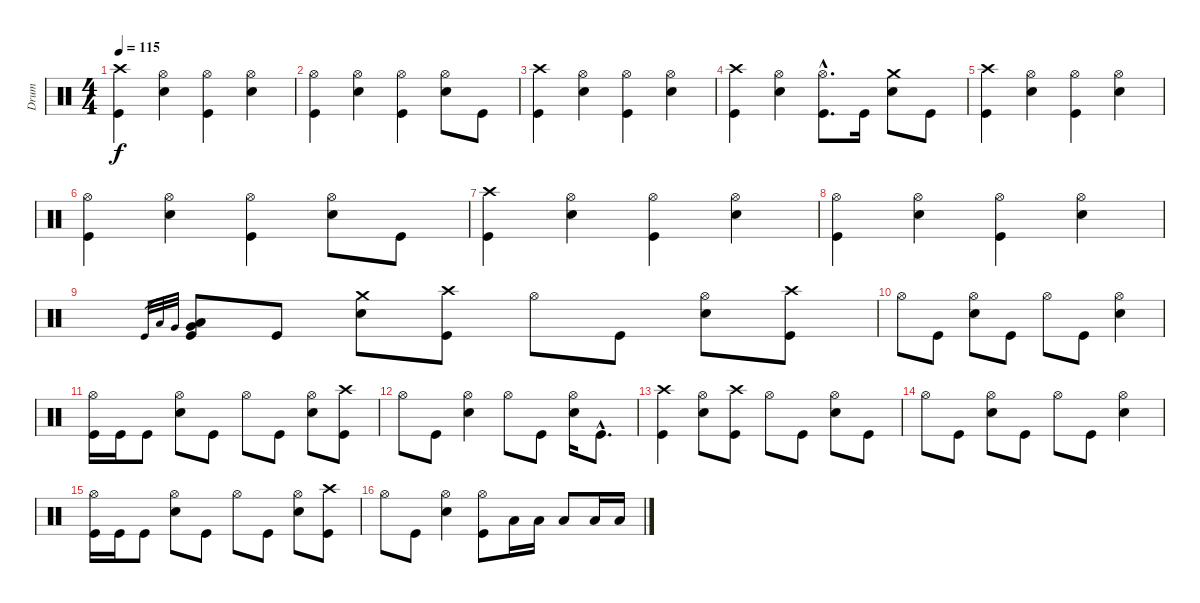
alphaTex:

\track ("Drum" "Drum") {instrument percussion}
\staff {score}
\articulation defaults
\ts (4 4)
\tempo 115
\clef neutral
\ks c
("Kick (hit)" "Crash high (hit)").4{dy f} ("Hi-Hat (open)" "Snare (hit) 2").4 ("Kick (hit)" "Hi-Hat (open)").4 ("Hi-Hat (open)" "Snare (hit) 2").4 |
("Kick (hit)" "Hi-Hat (open)").4 ("Hi-Hat (open)" "Snare (hit) 2").4 ("Kick (hit)" "Hi-Hat (open)").4 ("Hi-Hat (open)" "Snare (hit) 2").8 "Kick (hit)".8 |
("Kick (hit)" "Crash high (hit)").4 ("Hi-Hat (open)" "Snare (hit) 2").4 ("Kick (hit)" "Hi-Hat (open)").4 ("Hi-Hat (open)" "Snare (hit) 2").4 |
("Kick (hit)" "Crash high (hit)").4 ("Hi-Hat (open)" "Snare (hit) 2").4 ("Kick (hit)"{hac} "Hi-Hat (open)"{hac}).8{d} "Kick (hit)".16 ("Crash medium (hit)" "Snare (hit) 2").8 "Kick (hit)".8 |
("Kick (hit)" "Crash high (hit)").4 ("Hi-Hat (open)" "Snare (hit) 2").4 ("Kick (hit)" "Hi-Hat (open)").4 ("Hi-Hat (open)" "Snare (hit) 2").4 |
("Kick (hit)" "Hi-Hat (open)").4 ("Hi-Hat (open)" "Snare (hit) 2").4 ("Kick (hit)" "Hi-Hat (open)").4 ("Hi-Hat (open)" "Snare (hit) 2").8 "Kick (hit)".8 |
("Kick (hit)" "Crash high (hit)").4 ("Hi-Hat (open)" "Snare (hit) 2").4 ("Kick (hit)" "Hi-Hat (open)").4 ("Hi-Hat (open)" "Snare (hit) 2").4 |
("Kick (hit)" "Hi-Hat (open)").4 ("Hi-Hat (open)" "Snare (hit) 2").4 ("Kick (hit)" "Hi-Hat (open)").4 ("Hi-Hat (open)" "Snare (hit) 2").4 |
"Kick (hit)".32{gr} "Low Floor Tom (hit)".32{gr} "Very Low Tom (hit)".32{gr} ("Kick (hit)" "Low Floor Tom (hit)" "Very Low Tom (hit)").8 "Kick (hit)".8 ("Snare (hit) 2" "Crash medium (hit)").8 ("Kick (hit)" "Crash high (hit)").8 "Hi-Hat (open)".8 "Kick (hit)".8 ("Hi-Hat (open)" "Snare (hit) 2").8 ("Kick (hit)" "Crash high (hit)").8 |
"Hi-Hat (open)".8 "Kick (hit)".8 ("Hi-Hat (open)" "Snare (hit) 2").8 "Kick (hit)".8 "Hi-Hat (open)".8 "Kick (hit)".8 ("Hi-Hat (open)" "Snare (hit) 2").4 |
("Kick (hit)" "Hi-Hat (open)").16 "Kick (hit)".16 "Kick (hit)".8 ("Hi-Hat (open)" "Snare (hit) 2").8 "Kick (hit)".8 "Hi-Hat (open)".8 "Kick (hit)".8 ("Hi-Hat (open)" "Snare (hit) 2").8 ("Kick (hit)" "Crash high (hit)").8 |
"Hi-Hat (open)".8 "Kick (hit)".8 ("Hi-Hat (open)" "Snare (hit) 2").4 "Hi-Hat (open)".8 "Kick (hit)".8 ("Hi-Hat (open)" "Snare (hit) 2").16 "Kick (hit)"{hac}.8{d} |
("Kick (hit)" "Crash high (hit)").4 ("Hi-Hat (open)" "Snare (hit) 2").8 ("Kick (hit)" "Crash high (hit)").8 "Hi-Hat (open)".8 "Kick (hit)".8 ("Hi-Hat (open)" "Snare (hit) 2").8 "Kick (hit)".8 |
"Hi-Hat (open)".8 "Kick (hit)".8 ("Hi-Hat (open)" "Snare (hit) 2").8 "Kick (hit)".8 "Hi-Hat (open)".8 "Kick (hit)".8 ("Hi-Hat (open)" "Snare (hit) 2").4 |
("Kick (hit)" "Hi-Hat (open)").16 "Kick (hit)".16 "Kick (hit)".8 ("Hi-Hat (open)" "Snare (hit) 2").8 "Kick (hit)".8 "Hi-Hat (open)".8 "Kick (hit)".8 ("Hi-Hat (open)" "Snare (hit) 2").8 ("Kick (hit)" "Crash high (hit)").8 |
"Hi-Hat (open)".8 "Kick (hit)".8 ("Hi-Hat (open)" "Snare (hit) 2").4 ("Kick (hit)" "Hi-Hat (open)").8 "Low Floor Tom (hit)".16 "Low Floor Tom (hit)".16 "Low Floor Tom (hit)".8 "Low Floor Tom (hit)".16 "Low Floor Tom (hit)".16
